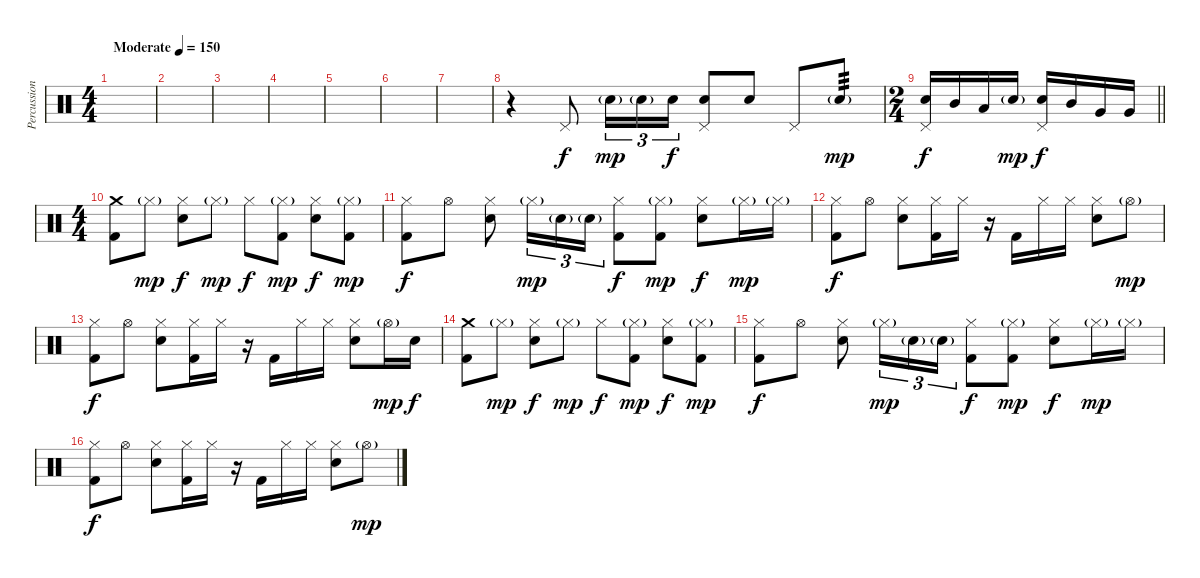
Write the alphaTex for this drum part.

\track ("Percussion" "Percussion") {instrument percussion}
\staff {score}
\articulation defaults
\ts (4 4)
\tempo (150 "Moderate")
\clef neutral
\ks c
|
|
|
|
|
|
|
r.4 "Pedal Hi-Hat (hit)".8 "Electric Snare (hit)"{g}.16{tu (3 2) dy mp} "Electric Snare (hit)"{g}.16{tu (3 2)} "Electric Snare (hit)".16{tu (3 2) dy f} ("Electric Snare (hit)" "Pedal Hi-Hat (hit)").8 "Electric Snare (hit)".8 "Pedal Hi-Hat (hit)".8 "Electric Snare (hit)"{g}.8{tp 3 dy mp} |
\ts (2 4)
\barLineRight lightlight
("Electric Snare (hit)" "Pedal Hi-Hat (hit)").16{dy f} "Mid Tom (hit)".16 "Low Tom (hit)".16 "Electric Snare (hit)"{g}.16{dy mp} ("Electric Snare (hit)" "Pedal Hi-Hat (hit)").16{dy f} "Mid Tom (hit)".16 "Very Low Tom (hit)".16 "Very Low Tom (hit)".16 |
\ts (4 4)
\section ("" "")
("Crash medium (hit)" "Kick (hit) 2").8 "Hi-Hat (closed)"{g}.8{dy mp} ("Hi-Hat (closed)" "Electric Snare (hit)").8{dy f} "Hi-Hat (closed)"{g}.8{dy mp} "Hi-Hat (closed)".8{dy f} ("Hi-Hat (closed)"{g} "Kick (hit) 2").8{dy mp} ("Hi-Hat (closed)" "Electric Snare (hit)").8{dy f} ("Hi-Hat (closed)"{g} "Kick (hit) 2").8{dy mp} |
("Hi-Hat (closed)" "Kick (hit) 2").8{dy f} "Hi-Hat (open)".8 ("Hi-Hat (closed)" "Electric Snare (hit)").8 "Hi-Hat (closed)"{g}.16{tu (3 2) dy mp} "Electric Snare (hit)"{g}.16{tu (3 2)} "Electric Snare (hit)"{g}.16{tu (3 2)} ("Hi-Hat (closed)" "Kick (hit) 2").8{dy f} ("Hi-Hat (closed)"{g} "Kick (hit) 2").8{dy mp} ("Hi-Hat (closed)" "Electric Snare (hit)").8{dy f} "Hi-Hat (closed)"{g}.16{dy mp} "Hi-Hat (closed)"{g}.16 |
("Hi-Hat (closed)" "Kick (hit) 2").8{dy f} "Hi-Hat (open)".8 ("Hi-Hat (closed)" "Electric Snare (hit)").8 ("Hi-Hat (closed)" "Kick (hit) 2").16 "Hi-Hat (closed)".16 r.16 "Kick (hit) 2".16 "Hi-Hat (closed)".16 "Hi-Hat (closed)".16 ("Hi-Hat (closed)" "Electric Snare (hit)").8 "Hi-Hat (open)"{g}.8{dy mp} |
("Hi-Hat (closed)" "Kick (hit) 2").8{dy f} "Hi-Hat (open)".8 ("Hi-Hat (closed)" "Electric Snare (hit)").8 ("Hi-Hat (closed)" "Kick (hit) 2").16 "Hi-Hat (closed)".16 r.16 "Kick (hit) 2".16 "Hi-Hat (closed)".16 "Hi-Hat (closed)".16 ("Hi-Hat (closed)" "Electric Snare (hit)").8 "Hi-Hat (open)"{g}.16{dy mp} "Electric Snare (hit)".16{dy f} |
("Crash medium (hit)" "Kick (hit) 2").8 "Hi-Hat (closed)"{g}.8{dy mp} ("Hi-Hat (closed)" "Electric Snare (hit)").8{dy f} "Hi-Hat (closed)"{g}.8{dy mp} "Hi-Hat (closed)".8{dy f} ("Hi-Hat (closed)"{g} "Kick (hit) 2").8{dy mp} ("Hi-Hat (closed)" "Electric Snare (hit)").8{dy f} ("Hi-Hat (closed)"{g} "Kick (hit) 2").8{dy mp} |
("Hi-Hat (closed)" "Kick (hit) 2").8{dy f} "Hi-Hat (open)".8 ("Hi-Hat (closed)" "Electric Snare (hit)").8 "Hi-Hat (closed)"{g}.16{tu (3 2) dy mp} "Electric Snare (hit)"{g}.16{tu (3 2)} "Electric Snare (hit)"{g}.16{tu (3 2)} ("Hi-Hat (closed)" "Kick (hit) 2").8{dy f} ("Hi-Hat (closed)"{g} "Kick (hit) 2").8{dy mp} ("Hi-Hat (closed)" "Electric Snare (hit)").8{dy f} "Hi-Hat (closed)"{g}.16{dy mp} "Hi-Hat (closed)"{g}.16 |
("Hi-Hat (closed)" "Kick (hit) 2").8{dy f} "Hi-Hat (open)".8 ("Hi-Hat (closed)" "Electric Snare (hit)").8 ("Hi-Hat (closed)" "Kick (hit) 2").16 "Hi-Hat (closed)".16 r.16 "Kick (hit) 2".16 "Hi-Hat (closed)".16 "Hi-Hat (closed)".16 ("Hi-Hat (closed)" "Electric Snare (hit)").8 "Hi-Hat (open)"{g}.8{dy mp}
